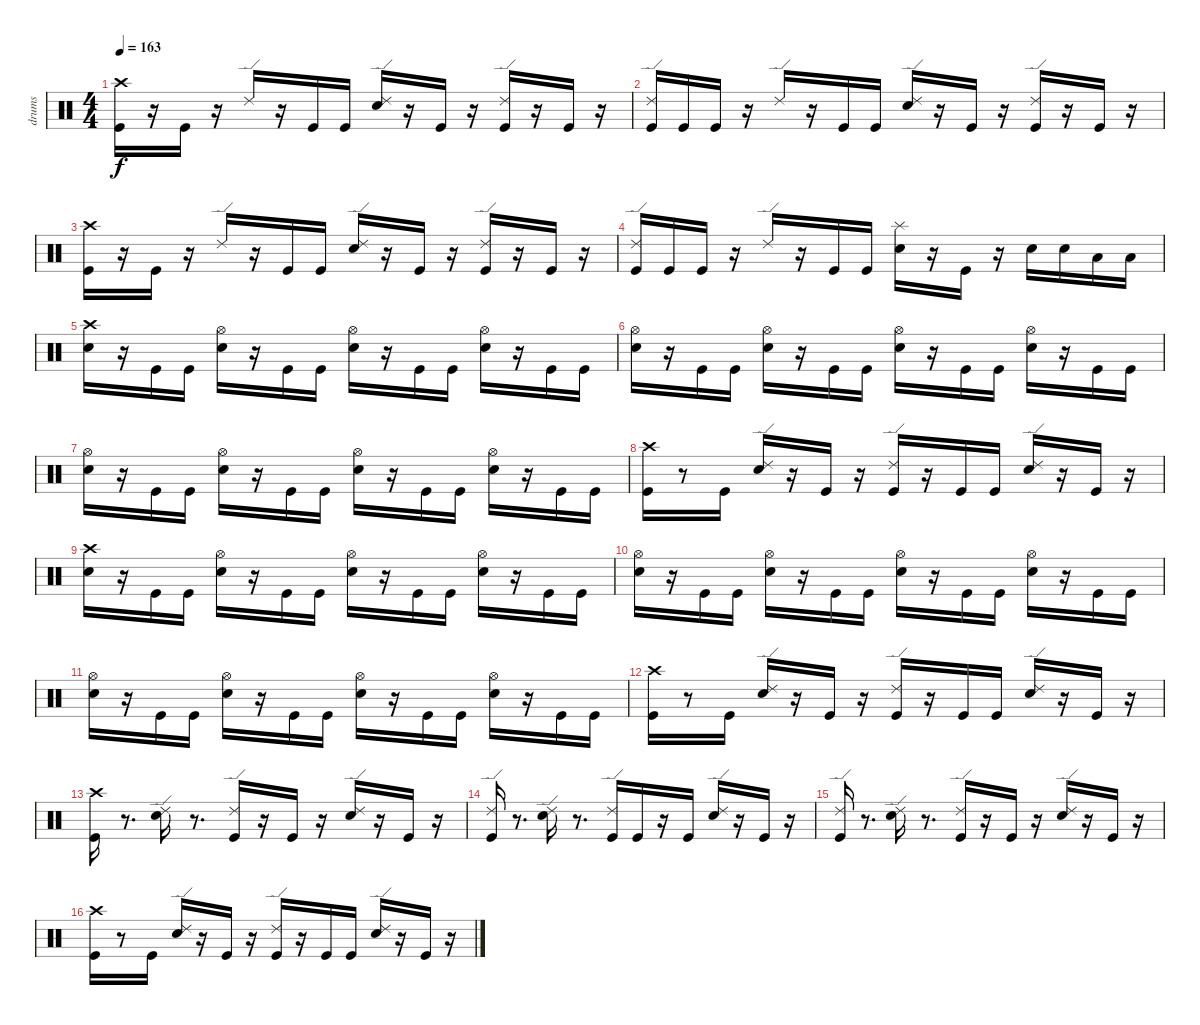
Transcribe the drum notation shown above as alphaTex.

\track ("drums" "drums") {instrument percussion}
\staff {score}
\articulation defaults
\ts (4 4)
\tempo 163
\clef neutral
\ks c
("Crash high (hit)" "Kick (hit)").16{dy f} r.16 "Kick (hit)".16 r.16 "Ride (edge) 2".16 r.16 "Kick (hit)".16 "Kick (hit)".16 ("Ride (edge) 2" "Snare (hit) 2").16 r.16 "Kick (hit)".16 r.16 ("Kick (hit)" "Ride (edge) 2").16 r.16 "Kick (hit)".16 r.16 |
("Ride (edge) 2" "Kick (hit)").16 "Kick (hit)".16 "Kick (hit)".16 r.16 "Ride (edge) 2".16 r.16 "Kick (hit)".16 "Kick (hit)".16 ("Ride (edge) 2" "Snare (hit) 2").16 r.16 "Kick (hit)".16 r.16 ("Kick (hit)" "Ride (edge) 2").16 r.16 "Kick (hit)".16 r.16 |
("Crash high (hit)" "Kick (hit)").16 r.16 "Kick (hit)".16 r.16 "Ride (edge) 2".16 r.16 "Kick (hit)".16 "Kick (hit)".16 ("Ride (edge) 2" "Snare (hit) 2").16 r.16 "Kick (hit)".16 r.16 ("Kick (hit)" "Ride (edge) 2").16 r.16 "Kick (hit)".16 r.16 |
("Ride (edge) 2" "Kick (hit)").16 "Kick (hit)".16 "Kick (hit)".16 r.16 "Ride (edge) 2".16 r.16 "Kick (hit)".16 "Kick (hit)".16 ("Splash (hit)" "Snare (hit) 2").16 r.16 "Kick (hit)".16 r.16 "Snare (hit) 2".16 "Snare (hit) 2".16 "Low Tom (hit)".16 "Low Tom (hit)".16 |
("Crash high (hit)" "Snare (hit) 2").16 r.16 "Kick (hit)".16 "Kick (hit)".16 ("Hi-Hat (open)" "Snare (hit) 2").16 r.16 "Kick (hit)".16 "Kick (hit)".16 ("Hi-Hat (open)" "Snare (hit) 2").16 r.16 "Kick (hit)".16 "Kick (hit)".16 ("Hi-Hat (open)" "Snare (hit) 2").16 r.16 "Kick (hit)".16 "Kick (hit)".16 |
("Hi-Hat (open)" "Snare (hit) 2").16 r.16 "Kick (hit)".16 "Kick (hit)".16 ("Hi-Hat (open)" "Snare (hit) 2").16 r.16 "Kick (hit)".16 "Kick (hit)".16 ("Hi-Hat (open)" "Snare (hit) 2").16 r.16 "Kick (hit)".16 "Kick (hit)".16 ("Hi-Hat (open)" "Snare (hit) 2").16 r.16 "Kick (hit)".16 "Kick (hit)".16 |
("Hi-Hat (open)" "Snare (hit) 2").16 r.16 "Kick (hit)".16 "Kick (hit)".16 ("Hi-Hat (open)" "Snare (hit) 2").16 r.16 "Kick (hit)".16 "Kick (hit)".16 ("Hi-Hat (open)" "Snare (hit) 2").16 r.16 "Kick (hit)".16 "Kick (hit)".16 ("Hi-Hat (open)" "Snare (hit) 2").16 r.16 "Kick (hit)".16 "Kick (hit)".16 |
("Crash high (hit)" "Kick (hit)").16 r.8 "Kick (hit)".16 ("Ride (edge) 2" "Snare (hit) 2").16 r.16 "Kick (hit)".16 r.16 ("Ride (edge) 2" "Kick (hit)").16 r.16 "Kick (hit)".16 "Kick (hit)".16 ("Ride (edge) 2" "Snare (hit) 2").16 r.16 "Kick (hit)".16 r.16 |
("Crash high (hit)" "Snare (hit) 2").16 r.16 "Kick (hit)".16 "Kick (hit)".16 ("Hi-Hat (open)" "Snare (hit) 2").16 r.16 "Kick (hit)".16 "Kick (hit)".16 ("Hi-Hat (open)" "Snare (hit) 2").16 r.16 "Kick (hit)".16 "Kick (hit)".16 ("Hi-Hat (open)" "Snare (hit) 2").16 r.16 "Kick (hit)".16 "Kick (hit)".16 |
("Hi-Hat (open)" "Snare (hit) 2").16 r.16 "Kick (hit)".16 "Kick (hit)".16 ("Hi-Hat (open)" "Snare (hit) 2").16 r.16 "Kick (hit)".16 "Kick (hit)".16 ("Hi-Hat (open)" "Snare (hit) 2").16 r.16 "Kick (hit)".16 "Kick (hit)".16 ("Hi-Hat (open)" "Snare (hit) 2").16 r.16 "Kick (hit)".16 "Kick (hit)".16 |
("Hi-Hat (open)" "Snare (hit) 2").16 r.16 "Kick (hit)".16 "Kick (hit)".16 ("Hi-Hat (open)" "Snare (hit) 2").16 r.16 "Kick (hit)".16 "Kick (hit)".16 ("Hi-Hat (open)" "Snare (hit) 2").16 r.16 "Kick (hit)".16 "Kick (hit)".16 ("Hi-Hat (open)" "Snare (hit) 2").16 r.16 "Kick (hit)".16 "Kick (hit)".16 |
("Crash high (hit)" "Kick (hit)").16 r.8 "Kick (hit)".16 ("Ride (edge) 2" "Snare (hit) 2").16 r.16 "Kick (hit)".16 r.16 ("Ride (edge) 2" "Kick (hit)").16 r.16 "Kick (hit)".16 "Kick (hit)".16 ("Ride (edge) 2" "Snare (hit) 2").16 r.16 "Kick (hit)".16 r.16 |
("Crash high (hit)" "Kick (hit)").16 r.8{d} ("Ride (edge) 2" "Snare (hit) 2").16 r.8{d} ("Ride (edge) 2" "Kick (hit)").16 r.16 "Kick (hit)".16 r.16 ("Ride (edge) 2" "Snare (hit) 2").16 r.16 "Kick (hit)".16 r.16 |
("Ride (edge) 2" "Kick (hit)").16 r.8{d} ("Ride (edge) 2" "Snare (hit) 2").16 r.8{d} ("Ride (edge) 2" "Kick (hit)").16 "Kick (hit)".16 r.16 "Kick (hit)".16 ("Ride (edge) 2" "Snare (hit) 2").16 r.16 "Kick (hit)".16 r.16 |
("Ride (edge) 2" "Kick (hit)").16 r.8{d} ("Ride (edge) 2" "Snare (hit) 2").16 r.8{d} ("Ride (edge) 2" "Kick (hit)").16 r.16 "Kick (hit)".16 r.16 ("Ride (edge) 2" "Snare (hit) 2").16 r.16 "Kick (hit)".16 r.16 |
("Crash high (hit)" "Kick (hit)").16 r.8 "Kick (hit)".16 ("Ride (edge) 2" "Snare (hit) 2").16 r.16 "Kick (hit)".16 r.16 ("Ride (edge) 2" "Kick (hit)").16 r.16 "Kick (hit)".16 "Kick (hit)".16 ("Ride (edge) 2" "Snare (hit) 2").16 r.16 "Kick (hit)".16 r.16
